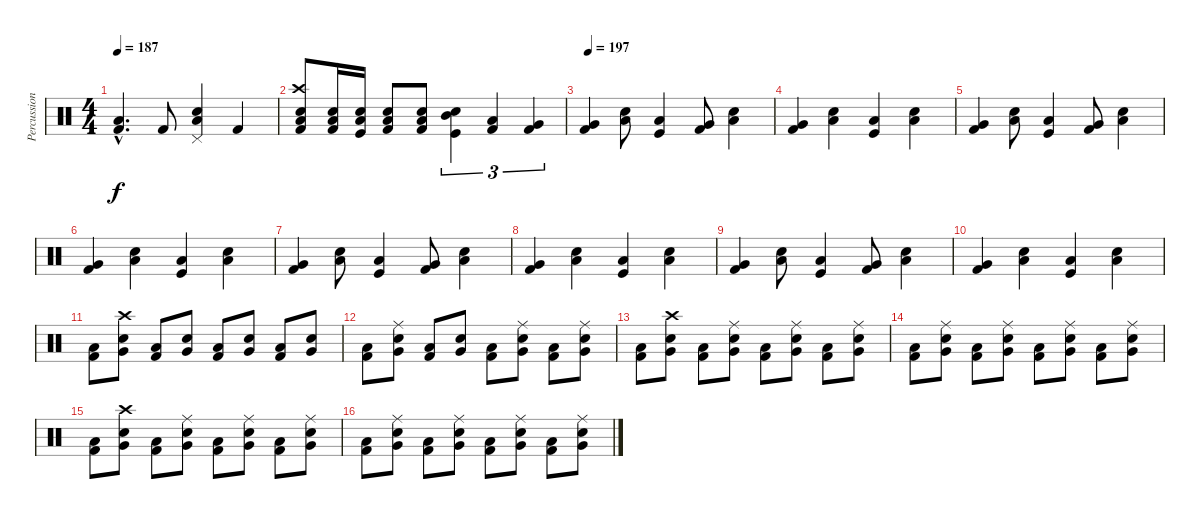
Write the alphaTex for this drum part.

\track ("Percussions" "Percussion") {instrument percussion}
\staff {score}
\articulation defaults
\ts (4 4)
\tempo 187
\clef neutral
\ks c
("Low Tom (hit)"{hac} "Kick (hit) 2"{hac}).4{d dy f} "Kick (hit) 2".8 ("Pedal Hi-Hat (hit)" "Snare (hit) 2" "Low Floor Tom (hit)").4 "Kick (hit) 2".4 |
("Crash high (hit)" "Low Tom (hit)" "Electric Snare (hit)" "Kick (hit) 2").8 ("Low Tom (hit)" "Electric Snare (hit)" "Kick (hit) 2").16 ("Low Tom (hit)" "Electric Snare (hit)" "Kick (hit)").16 ("Low Floor Tom (hit)" "Electric Snare (hit)" "Kick (hit) 2").8 ("Low Tom (hit)" "Electric Snare (hit)" "Kick (hit) 2").8 ("Electric Snare (hit)" "Mid Tom (hit)" "Kick (hit)").4{tu (3 2)} ("Low Tom (hit)" "Kick (hit) 2").4{tu (3 2)} ("Very Low Tom (hit)" "Kick (hit) 2").4{tu (3 2)} |
\tempo 197
("Very Low Tom (hit)" "Kick (hit) 2").4 ("Low Floor Tom (hit)" "Electric Snare (hit)").8 ("Low Tom (hit)" "Kick (hit)").4 ("Very Low Tom (hit)" "Kick (hit) 2").8 ("Low Floor Tom (hit)" "Electric Snare (hit)").4 |
("Very Low Tom (hit)" "Kick (hit) 2").4 ("Low Floor Tom (hit)" "Electric Snare (hit)").4 ("Low Tom (hit)" "Kick (hit)").4 ("Low Floor Tom (hit)" "Electric Snare (hit)").4 |
("Very Low Tom (hit)" "Kick (hit) 2").4 ("Low Floor Tom (hit)" "Electric Snare (hit)").8 ("Low Tom (hit)" "Kick (hit)").4 ("Very Low Tom (hit)" "Kick (hit) 2").8 ("Low Floor Tom (hit)" "Electric Snare (hit)").4 |
("Very Low Tom (hit)" "Kick (hit) 2").4 ("Low Floor Tom (hit)" "Electric Snare (hit)").4 ("Low Tom (hit)" "Kick (hit)").4 ("Low Floor Tom (hit)" "Electric Snare (hit)").4 |
("Very Low Tom (hit)" "Kick (hit) 2").4 ("Low Floor Tom (hit)" "Electric Snare (hit)").8 ("Low Tom (hit)" "Kick (hit)").4 ("Very Low Tom (hit)" "Kick (hit) 2").8 ("Low Floor Tom (hit)" "Electric Snare (hit)").4 |
("Very Low Tom (hit)" "Kick (hit) 2").4 ("Low Floor Tom (hit)" "Electric Snare (hit)").4 ("Low Tom (hit)" "Kick (hit)").4 ("Low Floor Tom (hit)" "Electric Snare (hit)").4 |
("Very Low Tom (hit)" "Kick (hit) 2").4 ("Low Floor Tom (hit)" "Electric Snare (hit)").8 ("Low Tom (hit)" "Kick (hit)").4 ("Very Low Tom (hit)" "Kick (hit) 2").8 ("Low Floor Tom (hit)" "Electric Snare (hit)").4 |
("Very Low Tom (hit)" "Kick (hit) 2").4 ("Low Floor Tom (hit)" "Electric Snare (hit)").4 ("Low Tom (hit)" "Kick (hit)").4 ("Low Floor Tom (hit)" "Electric Snare (hit)").4 |
("Low Tom (hit)" "Kick (hit) 2").8 ("Crash high (hit)" "Very Low Tom (hit)" "Electric Snare (hit)").8 ("Low Tom (hit)" "Kick (hit) 2").8 ("Very Low Tom (hit)" "Electric Snare (hit)").8 ("Low Tom (hit)" "Kick (hit) 2").8 ("Very Low Tom (hit)" "Electric Snare (hit)").8 ("Low Tom (hit)" "Kick (hit) 2").8 ("Very Low Tom (hit)" "Electric Snare (hit)").8 |
("Low Tom (hit)" "Kick (hit) 2").8 ("Ride (middle)" "Very Low Tom (hit)" "Electric Snare (hit)").8 ("Low Tom (hit)" "Kick (hit) 2").8 ("Very Low Tom (hit)" "Electric Snare (hit)").8 ("Low Tom (hit)" "Kick (hit) 2").8 ("Ride (middle)" "Very Low Tom (hit)" "Electric Snare (hit)").8 ("Low Tom (hit)" "Kick (hit) 2").8 ("Ride (middle)" "Very Low Tom (hit)" "Electric Snare (hit)").8 |
("Low Tom (hit)" "Kick (hit) 2").8 ("Crash high (hit)" "Very Low Tom (hit)" "Electric Snare (hit)").8 ("Low Tom (hit)" "Kick (hit) 2").8 ("Ride (middle)" "Very Low Tom (hit)" "Electric Snare (hit)").8 ("Low Tom (hit)" "Kick (hit) 2").8 ("Ride (middle)" "Very Low Tom (hit)" "Electric Snare (hit)").8 ("Low Tom (hit)" "Kick (hit) 2").8 ("Ride (middle)" "Very Low Tom (hit)" "Electric Snare (hit)").8 |
("Low Tom (hit)" "Kick (hit) 2").8 ("Ride (middle)" "Very Low Tom (hit)" "Electric Snare (hit)").8 ("Low Tom (hit)" "Kick (hit) 2").8 ("Ride (middle)" "Very Low Tom (hit)" "Electric Snare (hit)").8 ("Low Tom (hit)" "Kick (hit) 2").8 ("Ride (middle)" "Very Low Tom (hit)" "Electric Snare (hit)").8 ("Low Tom (hit)" "Kick (hit) 2").8 ("Ride (middle)" "Very Low Tom (hit)" "Electric Snare (hit)").8 |
("Low Tom (hit)" "Kick (hit) 2").8 ("Crash high (hit)" "Very Low Tom (hit)" "Electric Snare (hit)").8 ("Low Tom (hit)" "Kick (hit) 2").8 ("Ride (middle)" "Very Low Tom (hit)" "Electric Snare (hit)").8 ("Low Tom (hit)" "Kick (hit) 2").8 ("Ride (middle)" "Very Low Tom (hit)" "Electric Snare (hit)").8 ("Low Tom (hit)" "Kick (hit) 2").8 ("Ride (middle)" "Very Low Tom (hit)" "Electric Snare (hit)").8 |
("Low Tom (hit)" "Kick (hit) 2").8 ("Ride (middle)" "Very Low Tom (hit)" "Electric Snare (hit)").8 ("Low Tom (hit)" "Kick (hit) 2").8 ("Ride (middle)" "Very Low Tom (hit)" "Electric Snare (hit)").8 ("Low Tom (hit)" "Kick (hit) 2").8 ("Ride (middle)" "Very Low Tom (hit)" "Electric Snare (hit)").8 ("Low Tom (hit)" "Kick (hit) 2").8 ("Ride (middle)" "Very Low Tom (hit)" "Electric Snare (hit)").8
